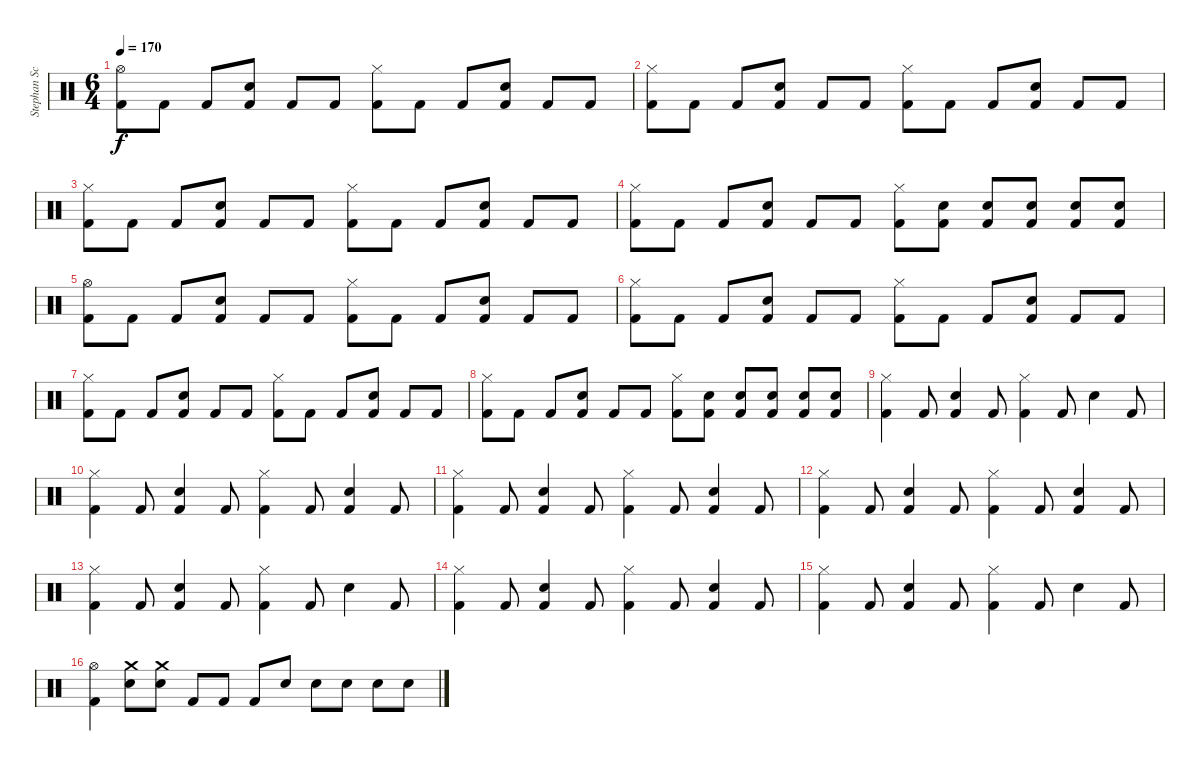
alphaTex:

\track ("Stephan Schwartzmann" "Stephan Sc") {instrument percussion}
\staff {score}
\articulation defaults
\ts (6 4)
\tempo 170
\clef neutral
\ks c
("Hi-Hat (open)" "Kick (hit) 2").8{dy f} "Kick (hit) 2".8 "Kick (hit) 2".8 ("Snare (hit) 2" "Kick (hit) 2").8 "Kick (hit) 2".8 "Kick (hit) 2".8 ("Hi-Hat (closed)" "Kick (hit) 2").8 "Kick (hit) 2".8 "Kick (hit) 2".8 ("Snare (hit) 2" "Kick (hit) 2").8 "Kick (hit) 2".8 "Kick (hit) 2".8 |
("Hi-Hat (closed)" "Kick (hit) 2").8 "Kick (hit) 2".8 "Kick (hit) 2".8 ("Snare (hit) 2" "Kick (hit) 2").8 "Kick (hit) 2".8 "Kick (hit) 2".8 ("Hi-Hat (closed)" "Kick (hit) 2").8 "Kick (hit) 2".8 "Kick (hit) 2".8 ("Snare (hit) 2" "Kick (hit) 2").8 "Kick (hit) 2".8 "Kick (hit) 2".8 |
("Hi-Hat (closed)" "Kick (hit) 2").8 "Kick (hit) 2".8 "Kick (hit) 2".8 ("Snare (hit) 2" "Kick (hit) 2").8 "Kick (hit) 2".8 "Kick (hit) 2".8 ("Hi-Hat (closed)" "Kick (hit) 2").8 "Kick (hit) 2".8 "Kick (hit) 2".8 ("Snare (hit) 2" "Kick (hit) 2").8 "Kick (hit) 2".8 "Kick (hit) 2".8 |
("Hi-Hat (closed)" "Kick (hit) 2").8 "Kick (hit) 2".8 "Kick (hit) 2".8 ("Snare (hit) 2" "Kick (hit) 2").8 "Kick (hit) 2".8 "Kick (hit) 2".8 ("Hi-Hat (closed)" "Kick (hit) 2").8 ("Snare (hit) 2" "Kick (hit) 2").8 ("Snare (hit) 2" "Kick (hit) 2").8 ("Snare (hit) 2" "Kick (hit) 2").8 ("Snare (hit) 2" "Kick (hit) 2").8 ("Snare (hit) 2" "Kick (hit) 2").8 |
("Hi-Hat (open)" "Kick (hit) 2").8 "Kick (hit) 2".8 "Kick (hit) 2".8 ("Snare (hit) 2" "Kick (hit) 2").8 "Kick (hit) 2".8 "Kick (hit) 2".8 ("Hi-Hat (closed)" "Kick (hit) 2").8 "Kick (hit) 2".8 "Kick (hit) 2".8 ("Snare (hit) 2" "Kick (hit) 2").8 "Kick (hit) 2".8 "Kick (hit) 2".8 |
("Hi-Hat (closed)" "Kick (hit) 2").8 "Kick (hit) 2".8 "Kick (hit) 2".8 ("Snare (hit) 2" "Kick (hit) 2").8 "Kick (hit) 2".8 "Kick (hit) 2".8 ("Hi-Hat (closed)" "Kick (hit) 2").8 "Kick (hit) 2".8 "Kick (hit) 2".8 ("Snare (hit) 2" "Kick (hit) 2").8 "Kick (hit) 2".8 "Kick (hit) 2".8 |
("Hi-Hat (closed)" "Kick (hit) 2").8 "Kick (hit) 2".8 "Kick (hit) 2".8 ("Snare (hit) 2" "Kick (hit) 2").8 "Kick (hit) 2".8 "Kick (hit) 2".8 ("Hi-Hat (closed)" "Kick (hit) 2").8 "Kick (hit) 2".8 "Kick (hit) 2".8 ("Snare (hit) 2" "Kick (hit) 2").8 "Kick (hit) 2".8 "Kick (hit) 2".8 |
("Hi-Hat (closed)" "Kick (hit) 2").8 "Kick (hit) 2".8 "Kick (hit) 2".8 ("Snare (hit) 2" "Kick (hit) 2").8 "Kick (hit) 2".8 "Kick (hit) 2".8 ("Hi-Hat (closed)" "Kick (hit) 2").8 ("Snare (hit) 2" "Kick (hit) 2").8 ("Snare (hit) 2" "Kick (hit) 2").8 ("Snare (hit) 2" "Kick (hit) 2").8 ("Snare (hit) 2" "Kick (hit) 2").8 ("Snare (hit) 2" "Kick (hit) 2").8 |
("Hi-Hat (closed)" "Kick (hit) 2").4 "Kick (hit) 2".8 ("Snare (hit) 2" "Kick (hit) 2").4 "Kick (hit) 2".8 ("Hi-Hat (closed)" "Kick (hit) 2").4 "Kick (hit) 2".8 "Snare (hit) 2".4 "Kick (hit) 2".8 |
("Hi-Hat (closed)" "Kick (hit) 2").4 "Kick (hit) 2".8 ("Snare (hit) 2" "Kick (hit) 2").4 "Kick (hit) 2".8 ("Hi-Hat (closed)" "Kick (hit) 2").4 "Kick (hit) 2".8 ("Snare (hit) 2" "Kick (hit) 2").4 "Kick (hit) 2".8 |
("Hi-Hat (closed)" "Kick (hit) 2").4 "Kick (hit) 2".8 ("Snare (hit) 2" "Kick (hit) 2").4 "Kick (hit) 2".8 ("Hi-Hat (closed)" "Kick (hit) 2").4 "Kick (hit) 2".8 ("Snare (hit) 2" "Kick (hit) 2").4 "Kick (hit) 2".8 |
("Hi-Hat (closed)" "Kick (hit) 2").4 "Kick (hit) 2".8 ("Snare (hit) 2" "Kick (hit) 2").4 "Kick (hit) 2".8 ("Hi-Hat (closed)" "Kick (hit) 2").4 "Kick (hit) 2".8 ("Snare (hit) 2" "Kick (hit) 2").4 "Kick (hit) 2".8 |
("Hi-Hat (closed)" "Kick (hit) 2").4 "Kick (hit) 2".8 ("Snare (hit) 2" "Kick (hit) 2").4 "Kick (hit) 2".8 ("Hi-Hat (closed)" "Kick (hit) 2").4 "Kick (hit) 2".8 "Snare (hit) 2".4 "Kick (hit) 2".8 |
("Hi-Hat (closed)" "Kick (hit) 2").4 "Kick (hit) 2".8 ("Snare (hit) 2" "Kick (hit) 2").4 "Kick (hit) 2".8 ("Hi-Hat (closed)" "Kick (hit) 2").4 "Kick (hit) 2".8 ("Snare (hit) 2" "Kick (hit) 2").4 "Kick (hit) 2".8 |
("Hi-Hat (closed)" "Kick (hit) 2").4 "Kick (hit) 2".8 ("Snare (hit) 2" "Kick (hit) 2").4 "Kick (hit) 2".8 ("Hi-Hat (closed)" "Kick (hit) 2").4 "Kick (hit) 2".8 "Snare (hit) 2".4 "Kick (hit) 2".8 |
("Hi-Hat (open)" "Kick (hit) 2").4 ("Crash medium (hit)" "Snare (hit) 2").8 ("Crash medium (hit)" "Snare (hit) 2").8 "Kick (hit) 2".8 "Kick (hit) 2".8 "Kick (hit) 2".8 "Snare (hit) 2".8 "Snare (hit) 2".8 "Snare (hit) 2".8 "Snare (hit) 2".8 "Snare (hit) 2".8
